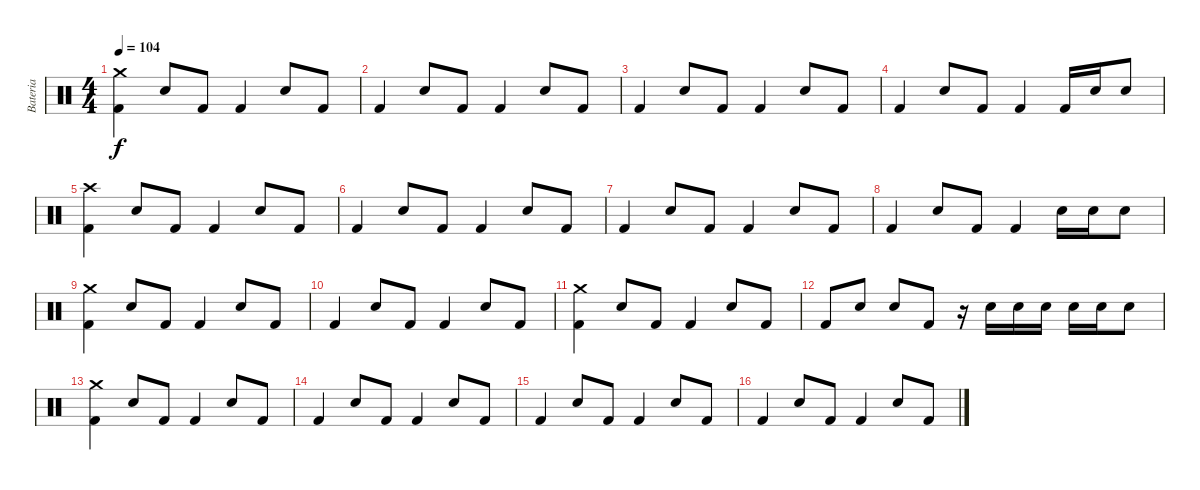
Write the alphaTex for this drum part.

\track ("Bateria" "Bateria") {instrument percussion}
\staff {score}
\articulation defaults
\ts (4 4)
\tempo 104
\clef neutral
\ks c
("Crash medium (hit)" "Kick (hit) 2").4{dy f} "Snare (hit) 2".8 "Kick (hit) 2".8 "Kick (hit) 2".4 "Snare (hit) 2".8 "Kick (hit) 2".8 |
"Kick (hit) 2".4 "Snare (hit) 2".8 "Kick (hit) 2".8 "Kick (hit) 2".4 "Snare (hit) 2".8 "Kick (hit) 2".8 |
"Kick (hit) 2".4 "Snare (hit) 2".8 "Kick (hit) 2".8 "Kick (hit) 2".4 "Snare (hit) 2".8 "Kick (hit) 2".8 |
"Kick (hit) 2".4 "Snare (hit) 2".8 "Kick (hit) 2".8 "Kick (hit) 2".4 "Kick (hit) 2".16 "Snare (hit) 2".16 "Snare (hit) 2".8 |
("Crash high (hit)" "Kick (hit) 2").4 "Snare (hit) 2".8 "Kick (hit) 2".8 "Kick (hit) 2".4 "Snare (hit) 2".8 "Kick (hit) 2".8 |
"Kick (hit) 2".4 "Snare (hit) 2".8 "Kick (hit) 2".8 "Kick (hit) 2".4 "Snare (hit) 2".8 "Kick (hit) 2".8 |
"Kick (hit) 2".4 "Snare (hit) 2".8 "Kick (hit) 2".8 "Kick (hit) 2".4 "Snare (hit) 2".8 "Kick (hit) 2".8 |
"Kick (hit) 2".4 "Snare (hit) 2".8 "Kick (hit) 2".8 "Kick (hit) 2".4 "Snare (hit) 2".16 "Snare (hit) 2".16 "Snare (hit) 2".8 |
("Crash medium (hit)" "Kick (hit) 2").4 "Snare (hit) 2".8 "Kick (hit) 2".8 "Kick (hit) 2".4 "Snare (hit) 2".8 "Kick (hit) 2".8 |
"Kick (hit) 2".4 "Snare (hit) 2".8 "Kick (hit) 2".8 "Kick (hit) 2".4 "Snare (hit) 2".8 "Kick (hit) 2".8 |
("Crash medium (hit)" "Kick (hit) 2").4 "Snare (hit) 2".8 "Kick (hit) 2".8 "Kick (hit) 2".4 "Snare (hit) 2".8 "Kick (hit) 2".8 |
"Kick (hit) 2".8 "Snare (hit) 2".8 "Snare (hit) 2".8 "Kick (hit) 2".8 r.16 "Snare (hit) 2".16 "Snare (hit) 2".16 "Snare (hit) 2".16 "Snare (hit) 2".16 "Snare (hit) 2".16 "Snare (hit) 2".8 |
("Crash medium (hit)" "Kick (hit) 2").4 "Snare (hit) 2".8 "Kick (hit) 2".8 "Kick (hit) 2".4 "Snare (hit) 2".8 "Kick (hit) 2".8 |
"Kick (hit) 2".4 "Snare (hit) 2".8 "Kick (hit) 2".8 "Kick (hit) 2".4 "Snare (hit) 2".8 "Kick (hit) 2".8 |
"Kick (hit) 2".4 "Snare (hit) 2".8 "Kick (hit) 2".8 "Kick (hit) 2".4 "Snare (hit) 2".8 "Kick (hit) 2".8 |
"Kick (hit) 2".4 "Snare (hit) 2".8 "Kick (hit) 2".8 "Kick (hit) 2".4 "Snare (hit) 2".8 "Kick (hit) 2".8
